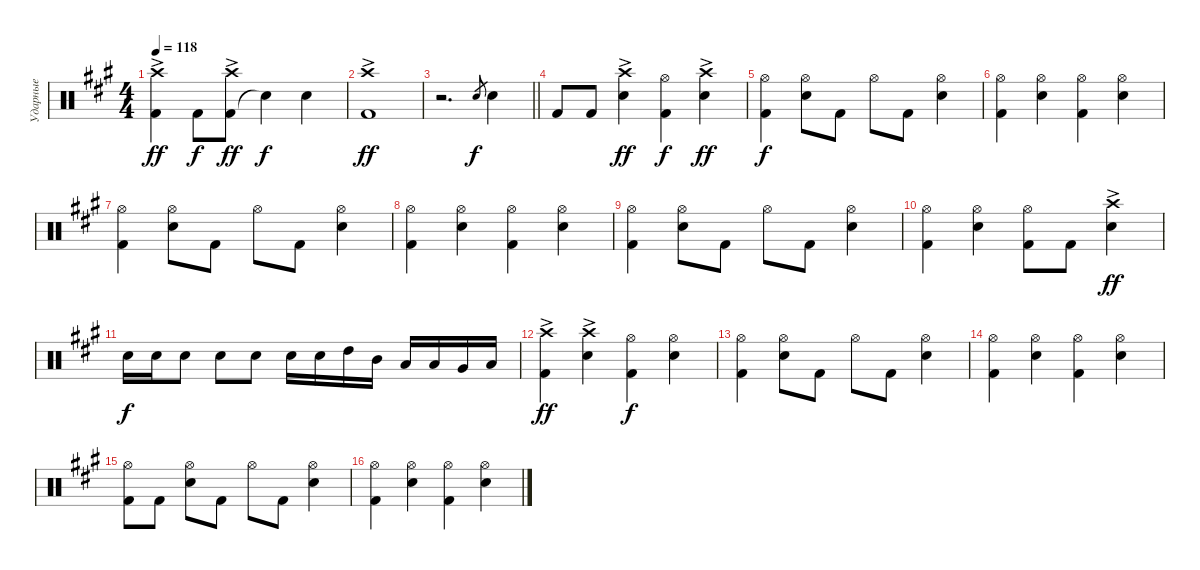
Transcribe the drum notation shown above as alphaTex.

\track ("Ударные" "Ударные") {instrument percussion}
\staff {score}
\articulation defaults
\ts (4 4)
\tempo 118
\clef neutral
\ks a
("Kick (hit) 2" "Crash high (hit)"{ac}).4{dy ff} "Kick (hit) 2".8{dy f} ("Kick (hit) 2" "Crash high (hit)"{ac}).8{dy ff} "Snare (hit)"{t}.4{dy f} "Snare (hit) 2".4 |
("Kick (hit) 2" "Crash high (hit)"{ac}).1{dy ff} |
\barLineRight lightlight
r.2{d} "Snare (hit) 2".8{gr dy f} "Snare (hit) 2".4 |
"Kick (hit) 2".8 "Kick (hit) 2".8 ("Snare (hit) 2" "Crash high (hit)"{ac}).4{dy ff} ("Kick (hit) 2" "Hi-Hat (open)").4{dy f} ("Snare (hit) 2" "Crash high (hit)"{ac}).4{dy ff} |
("Kick (hit) 2" "Hi-Hat (open)").4{dy f} ("Snare (hit) 2" "Hi-Hat (open)").8 "Kick (hit) 2".8 "Hi-Hat (open)".8 "Kick (hit) 2".8 ("Snare (hit) 2" "Hi-Hat (open)").4 |
("Kick (hit) 2" "Hi-Hat (open)").4 ("Snare (hit) 2" "Hi-Hat (open)").4 ("Kick (hit) 2" "Hi-Hat (open)").4 ("Snare (hit) 2" "Hi-Hat (open)").4 |
("Kick (hit) 2" "Hi-Hat (open)").4 ("Snare (hit) 2" "Hi-Hat (open)").8 "Kick (hit) 2".8 "Hi-Hat (open)".8 "Kick (hit) 2".8 ("Snare (hit) 2" "Hi-Hat (open)").4 |
("Kick (hit) 2" "Hi-Hat (open)").4 ("Snare (hit) 2" "Hi-Hat (open)").4 ("Kick (hit) 2" "Hi-Hat (open)").4 ("Snare (hit) 2" "Hi-Hat (open)").4 |
("Kick (hit) 2" "Hi-Hat (open)").4 ("Snare (hit) 2" "Hi-Hat (open)").8 "Kick (hit) 2".8 "Hi-Hat (open)".8 "Kick (hit) 2".8 ("Snare (hit) 2" "Hi-Hat (open)").4 |
("Kick (hit) 2" "Hi-Hat (open)").4 ("Snare (hit) 2" "Hi-Hat (open)").4 ("Kick (hit) 2" "Hi-Hat (open)").8 "Kick (hit) 2".8 ("Snare (hit) 2" "Crash high (hit)"{ac}).4{dy ff} |
"Snare (hit) 2".16{dy f} "Snare (hit) 2".16 "Snare (hit) 2".8 "Snare (hit) 2".8 "Snare (hit) 2".8 "Snare (hit) 2".16 "Snare (hit) 2".16 "High Tom (hit)".16 "Mid Tom (hit)".16 "Low Tom (hit)".16 "Low Tom (hit)".16 "Very Low Tom (hit)".16 "Low Floor Tom (hit)".16 |
("Kick (hit) 2" "Crash high (hit)"{ac}).4{dy ff} ("Snare (hit) 2" "Crash high (hit)"{ac}).4 ("Kick (hit) 2" "Hi-Hat (open)").4{dy f} ("Snare (hit) 2" "Hi-Hat (open)").4 |
("Kick (hit) 2" "Hi-Hat (open)").4 ("Snare (hit) 2" "Hi-Hat (open)").8 "Kick (hit) 2".8 "Hi-Hat (open)".8 "Kick (hit) 2".8 ("Snare (hit) 2" "Hi-Hat (open)").4 |
("Kick (hit) 2" "Hi-Hat (open)").4 ("Snare (hit) 2" "Hi-Hat (open)").4 ("Kick (hit) 2" "Hi-Hat (open)").4 ("Snare (hit) 2" "Hi-Hat (open)").4 |
("Kick (hit) 2" "Hi-Hat (open)").8 "Kick (hit) 2".8 ("Snare (hit) 2" "Hi-Hat (open)").8 "Kick (hit) 2".8 "Hi-Hat (open)".8 "Kick (hit) 2".8 ("Snare (hit) 2" "Hi-Hat (open)").4 |
("Kick (hit) 2" "Hi-Hat (open)").4 ("Snare (hit) 2" "Hi-Hat (open)").4 ("Kick (hit) 2" "Hi-Hat (open)").4 ("Snare (hit) 2" "Hi-Hat (open)").4
